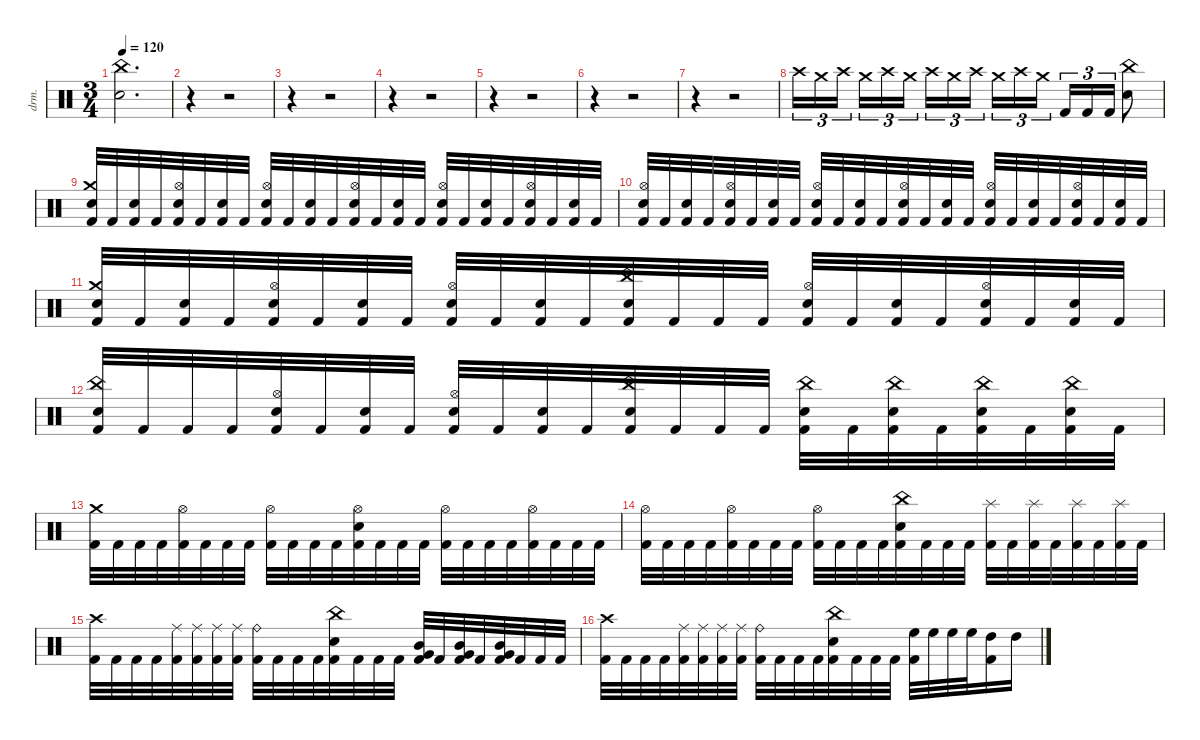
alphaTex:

\defaultSystemsLayout 4
\hideDynamics
\bracketExtendMode nobrackets
\otherSystemsTrackNameOrientation horizontal
\track ("Percussion" "drm.") {instrument percussion}
\staff {score}
\articulation defaults
\ts (3 4)
\beaming (8 2 2 2)
\tempo 120
\clef neutral
\ks c
("Snare (hit) 2" "China (hit)").2{d dy fff beam Down} |
r.4{beam Down} r.2{beam Down} |
r.4{beam Down} r.2{beam Down} |
r.4{beam Down} r.2{beam Down} |
r.4{beam Down} r.2{beam Down} |
r.4{beam Down} r.2{beam Down} |
r.4{beam Down} r.2{beam Down} |
"Crash high (hit)".16{tu (3 2) dy pp beam Down} "Crash medium (hit)".16{tu (3 2) beam Down} "Crash high (hit)".16{tu (3 2) beam Down} "Crash medium (hit)".16{tu (3 2) beam Down} "Crash high (hit)".16{tu (3 2) dy p beam Down} "Crash medium (hit)".16{tu (3 2) beam Down} "Crash high (hit)".16{tu (3 2) beam Down} "Crash medium (hit)".16{tu (3 2) beam Down} "Crash high (hit)".16{tu (3 2) dy mp beam Down} "Crash medium (hit)".16{tu (3 2) beam Down} "Crash high (hit)".16{tu (3 2) dy mf beam Down} "Crash medium (hit)".16{tu (3 2) dy f beam Down} "Kick (hit) 2".16{tu (3 2) dy fff beam Up} "Kick (hit) 2".16{tu (3 2) beam Up} "Kick (hit) 2".16{tu (3 2) beam Up} ("Snare (hit) 2" "China (hit)").8{beam Down} |
("Kick (hit) 2" "Snare (hit) 2" "Crash medium (hit)").32{beam Up} "Kick (hit) 2".32{beam Up} ("Kick (hit) 2" "Snare (hit) 2").32{beam Up} "Kick (hit) 2".32{beam Up} ("Kick (hit) 2" "Snare (hit) 2" "Hi-Hat (open)").32{beam Up} "Kick (hit) 2".32{beam Up} ("Kick (hit) 2" "Snare (hit) 2").32{beam Up} "Kick (hit) 2".32{beam Up} ("Kick (hit) 2" "Snare (hit) 2" "Hi-Hat (open)").32{beam Up} "Kick (hit) 2".32{beam Up} ("Kick (hit) 2" "Snare (hit) 2").32{beam Up} "Kick (hit) 2".32{beam Up} ("Kick (hit) 2" "Snare (hit) 2" "Hi-Hat (open)").32{beam Up} "Kick (hit) 2".32{beam Up} ("Kick (hit) 2" "Snare (hit) 2").32{beam Up} "Kick (hit) 2".32{beam Up} ("Kick (hit) 2" "Snare (hit) 2" "Hi-Hat (open)").32{beam Up} "Kick (hit) 2".32{beam Up} ("Kick (hit) 2" "Snare (hit) 2").32{beam Up} "Kick (hit) 2".32{beam Up} ("Kick (hit) 2" "Snare (hit) 2" "Hi-Hat (open)").32{beam Up} "Kick (hit) 2".32{beam Up} ("Kick (hit) 2" "Snare (hit) 2").32{beam Up} "Kick (hit) 2".32{beam Up} |
("Kick (hit) 2" "Snare (hit) 2" "Hi-Hat (open)").32{beam Up} "Kick (hit) 2".32{beam Up} ("Kick (hit) 2" "Snare (hit) 2").32{beam Up} "Kick (hit) 2".32{beam Up} ("Kick (hit) 2" "Snare (hit) 2" "Hi-Hat (open)").32{beam Up} "Kick (hit) 2".32{beam Up} ("Kick (hit) 2" "Snare (hit) 2").32{beam Up} "Kick (hit) 2".32{beam Up} ("Kick (hit) 2" "Snare (hit) 2" "Hi-Hat (open)").32{beam Up} "Kick (hit) 2".32{beam Up} ("Kick (hit) 2" "Snare (hit) 2").32{beam Up} "Kick (hit) 2".32{beam Up} ("Kick (hit) 2" "Snare (hit) 2" "Hi-Hat (open)").32{beam Up} "Kick (hit) 2".32{beam Up} ("Kick (hit) 2" "Snare (hit) 2").32{beam Up} "Kick (hit) 2".32{beam Up} ("Kick (hit) 2" "Snare (hit) 2" "Hi-Hat (open)").32{beam Up} "Kick (hit) 2".32{beam Up} ("Kick (hit) 2" "Snare (hit) 2").32{beam Up} "Kick (hit) 2".32{beam Up} ("Kick (hit) 2" "Snare (hit) 2" "Hi-Hat (open)").32{beam Up} "Kick (hit) 2".32{beam Up} ("Kick (hit) 2" "Snare (hit) 2").32{beam Up} "Kick (hit) 2".32{beam Up} |
("Kick (hit) 2" "Snare (hit) 2" "Crash medium (hit)").32{beam Up} "Kick (hit) 2".32{beam Up} ("Kick (hit) 2" "Snare (hit) 2").32{beam Up} "Kick (hit) 2".32{beam Up} ("Kick (hit) 2" "Snare (hit) 2" "Hi-Hat (open)").32{beam Up} "Kick (hit) 2".32{beam Up} ("Kick (hit) 2" "Snare (hit) 2").32{beam Up} "Kick (hit) 2".32{beam Up} ("Kick (hit) 2" "Snare (hit) 2" "Hi-Hat (open)").32{beam Up} "Kick (hit) 2".32{beam Up} ("Kick (hit) 2" "Snare (hit) 2").32{beam Up} "Kick (hit) 2".32{beam Up} ("Kick (hit) 2" "Snare (hit) 2" "China (hit)").32{beam Up} "Kick (hit) 2".32{beam Up} "Kick (hit) 2".32{beam Up} "Kick (hit) 2".32{beam Up} ("Kick (hit) 2" "Snare (hit) 2" "Hi-Hat (open)").32{beam Up} "Kick (hit) 2".32{beam Up} ("Kick (hit) 2" "Snare (hit) 2").32{beam Up} "Kick (hit) 2".32{beam Up} ("Kick (hit) 2" "Snare (hit) 2" "Hi-Hat (open)").32{beam Up} "Kick (hit) 2".32{beam Up} ("Kick (hit) 2" "Snare (hit) 2").32{beam Up} "Kick (hit) 2".32{beam Up} |
("Kick (hit) 2" "Snare (hit) 2" "China (hit)").32{beam Up} "Kick (hit) 2".32{beam Up} "Kick (hit) 2".32{beam Up} "Kick (hit) 2".32{beam Up} ("Kick (hit) 2" "Snare (hit) 2" "Hi-Hat (open)").32{beam Up} "Kick (hit) 2".32{beam Up} ("Kick (hit) 2" "Snare (hit) 2").32{beam Up} "Kick (hit) 2".32{beam Up} ("Kick (hit) 2" "Snare (hit) 2" "Hi-Hat (open)").32{beam Up} "Kick (hit) 2".32{beam Up} ("Kick (hit) 2" "Snare (hit) 2").32{beam Up} "Kick (hit) 2".32{beam Up} ("Kick (hit) 2" "Snare (hit) 2" "China (hit)").32{beam Up} "Kick (hit) 2".32{beam Up} "Kick (hit) 2".32{beam Up} "Kick (hit) 2".32{beam Up} ("Kick (hit) 2" "Snare (hit) 2" "China (hit)").32{beam Down} "Kick (hit) 2".32{beam Down} ("Kick (hit) 2" "Snare (hit) 2" "China (hit)").32{beam Down} "Kick (hit) 2".32{beam Down} ("Kick (hit) 2" "Snare (hit) 2" "China (hit)").32{beam Down} "Kick (hit) 2".32{beam Down} ("Kick (hit) 2" "Snare (hit) 2" "China (hit)").32{beam Down} "Kick (hit) 2".32{beam Down} |
("Kick (hit) 2" "Crash medium (hit)").32{beam Down} "Kick (hit) 2".32{beam Down} "Kick (hit) 2".32{beam Down} "Kick (hit) 2".32{beam Down} ("Kick (hit) 2" "Hi-Hat (open)").32{beam Down} "Kick (hit) 2".32{beam Down} "Kick (hit) 2".32{beam Down} "Kick (hit) 2".32{beam Down} ("Kick (hit) 2" "Hi-Hat (open)").32{beam Down} "Kick (hit) 2".32{beam Down} "Kick (hit) 2".32{beam Down} "Kick (hit) 2".32{beam Down} ("Kick (hit) 2" "Snare (hit) 2" "Hi-Hat (open)").32{beam Down} "Kick (hit) 2".32{beam Down} "Kick (hit) 2".32{beam Down} "Kick (hit) 2".32{beam Down} ("Kick (hit) 2" "Hi-Hat (open)").32{beam Down} "Kick (hit) 2".32{beam Down} "Kick (hit) 2".32{beam Down} "Kick (hit) 2".32{beam Down} ("Kick (hit) 2" "Hi-Hat (open)").32{beam Down} "Kick (hit) 2".32{beam Down} "Kick (hit) 2".32{beam Down} "Kick (hit) 2".32{beam Down} |
("Kick (hit) 2" "Hi-Hat (open)").32{beam Down} "Kick (hit) 2".32{beam Down} "Kick (hit) 2".32{beam Down} "Kick (hit) 2".32{beam Down} ("Kick (hit) 2" "Hi-Hat (open)").32{beam Down} "Kick (hit) 2".32{beam Down} "Kick (hit) 2".32{beam Down} "Kick (hit) 2".32{beam Down} ("Kick (hit) 2" "Hi-Hat (open)").32{beam Down} "Kick (hit) 2".32{beam Down} "Kick (hit) 2".32{beam Down} "Kick (hit) 2".32{beam Down} ("Kick (hit) 2" "Snare (hit) 2" "China (hit)").32{beam Down} "Kick (hit) 2".32{beam Down} "Kick (hit) 2".32{beam Down} "Kick (hit) 2".32{beam Down} ("Kick (hit) 2" "Splash (hit)").32{beam Down} "Kick (hit) 2".32{beam Down} ("Kick (hit) 2" "Splash (hit)").32{beam Down} "Kick (hit) 2".32{beam Down} ("Kick (hit) 2" "Splash (hit)").32{beam Down} "Kick (hit) 2".32{beam Down} ("Kick (hit) 2" "Splash (hit)").32{beam Down} "Kick (hit) 2".32{beam Down} |
("Kick (hit) 2" "Crash high (hit)").32{beam Down} "Kick (hit) 2".32{beam Down} "Kick (hit) 2".32{beam Down} "Kick (hit) 2".32{beam Down} ("Kick (hit) 2" "Ride (middle)").32{beam Down} ("Kick (hit) 2" "Ride (middle)").32{beam Down} ("Kick (hit) 2" "Ride (middle)").32{beam Down} ("Kick (hit) 2" "Ride (middle)").32{beam Down} ("Kick (hit) 2" "Ride (bell)").32{beam Down} "Kick (hit) 2".32{beam Down} "Kick (hit) 2".32{beam Down} "Kick (hit) 2".32{beam Down} ("Kick (hit) 2" "Snare (hit) 2" "China (hit)").32{beam Down} "Kick (hit) 2".32{beam Down} "Kick (hit) 2".32{beam Down} "Kick (hit) 2".32{beam Down} ("Kick (hit) 2" "Mid Tom (hit)" "Very Low Tom (hit)").32{beam Up} "Kick (hit) 2".32{beam Up} ("Kick (hit) 2" "Mid Tom (hit)" "Very Low Tom (hit)").32{beam Up} "Kick (hit) 2".32{beam Up} ("Kick (hit) 2" "Mid Tom (hit)" "Very Low Tom (hit)").32{beam Up} "Kick (hit) 2".32{beam Up} "Kick (hit) 2".32{beam Up} "Kick (hit) 2".32{beam Up} |
("Kick (hit) 2" "Crash high (hit)").32{beam Down} "Kick (hit) 2".32{beam Down} "Kick (hit) 2".32{beam Down} "Kick (hit) 2".32{beam Down} ("Kick (hit) 2" "Ride (middle)").32{beam Down} ("Kick (hit) 2" "Ride (middle)").32{beam Down} ("Kick (hit) 2" "Ride (middle)").32{beam Down} ("Kick (hit) 2" "Ride (middle)").32{beam Down} ("Kick (hit) 2" "Ride (bell)").32{beam Down} "Kick (hit) 2".32{beam Down} "Kick (hit) 2".32{beam Down} "Kick (hit) 2".32{beam Down} ("Kick (hit) 2" "Snare (hit) 2" "China (hit)").32{beam Down} "Kick (hit) 2".32{beam Down} "Kick (hit) 2".32{beam Down} "Kick (hit) 2".32{beam Down} ("Kick (hit) 2" "High Floor Tom (hit)").32{beam Down} "High Floor Tom (hit)".32{beam Down} "High Floor Tom (hit)".32{beam Down} "High Floor Tom (hit)".32{beam Down} ("Kick (hit) 2" "High Tom (hit)").16{beam Down} "High Tom (hit)".16{beam Down}
